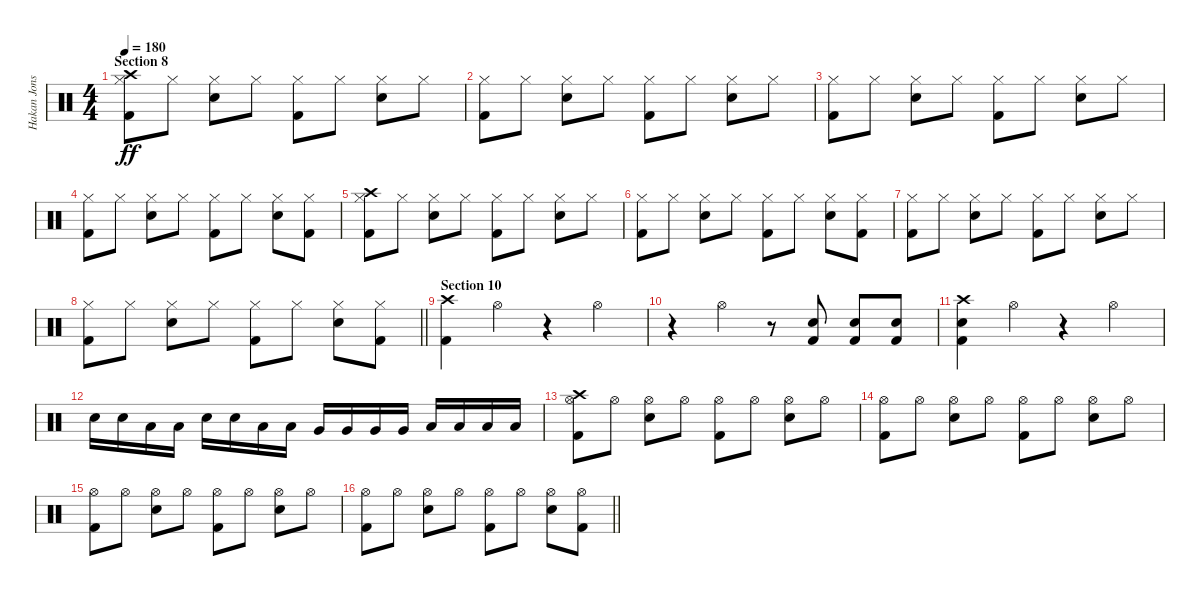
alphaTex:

\track ("Hakan Jonsson" "Hakan Jons") {instrument percussion}
\staff {score}
\articulation defaults
\ts (4 4)
\section ("" "Section 8")
\tempo 180
\clef neutral
\ks c
("Crash high (hit)" "Hi-Hat (closed)" "Kick (hit) 2").8{dy ff} "Hi-Hat (closed)".8 ("Hi-Hat (closed)" "Electric Snare (hit)").8 "Hi-Hat (closed)".8 ("Hi-Hat (closed)" "Kick (hit) 2").8 "Hi-Hat (closed)".8 ("Hi-Hat (closed)" "Electric Snare (hit)").8 "Hi-Hat (closed)".8 |
("Hi-Hat (closed)" "Kick (hit) 2").8 "Hi-Hat (closed)".8 ("Hi-Hat (closed)" "Electric Snare (hit)").8 "Hi-Hat (closed)".8 ("Hi-Hat (closed)" "Kick (hit) 2").8 "Hi-Hat (closed)".8 ("Hi-Hat (closed)" "Electric Snare (hit)").8 "Hi-Hat (closed)".8 |
("Hi-Hat (closed)" "Kick (hit) 2").8 "Hi-Hat (closed)".8 ("Hi-Hat (closed)" "Electric Snare (hit)").8 "Hi-Hat (closed)".8 ("Hi-Hat (closed)" "Kick (hit) 2").8 "Hi-Hat (closed)".8 ("Hi-Hat (closed)" "Electric Snare (hit)").8 "Hi-Hat (closed)".8 |
("Hi-Hat (closed)" "Kick (hit) 2").8 "Hi-Hat (closed)".8 ("Hi-Hat (closed)" "Electric Snare (hit)").8 "Hi-Hat (closed)".8 ("Hi-Hat (closed)" "Kick (hit) 2").8 "Hi-Hat (closed)".8 ("Hi-Hat (closed)" "Electric Snare (hit)").8 ("Hi-Hat (closed)" "Kick (hit) 2").8 |
("Crash high (hit)" "Hi-Hat (closed)" "Kick (hit) 2").8 "Hi-Hat (closed)".8 ("Hi-Hat (closed)" "Electric Snare (hit)").8 "Hi-Hat (closed)".8 ("Hi-Hat (closed)" "Kick (hit) 2").8 "Hi-Hat (closed)".8 ("Hi-Hat (closed)" "Electric Snare (hit)").8 "Hi-Hat (closed)".8 |
("Hi-Hat (closed)" "Kick (hit) 2").8 "Hi-Hat (closed)".8 ("Hi-Hat (closed)" "Electric Snare (hit)").8 "Hi-Hat (closed)".8 ("Hi-Hat (closed)" "Kick (hit) 2").8 "Hi-Hat (closed)".8 ("Hi-Hat (closed)" "Electric Snare (hit)").8 ("Hi-Hat (closed)" "Kick (hit) 2").8 |
("Hi-Hat (closed)" "Kick (hit) 2").8 "Hi-Hat (closed)".8 ("Hi-Hat (closed)" "Electric Snare (hit)").8 "Hi-Hat (closed)".8 ("Hi-Hat (closed)" "Kick (hit) 2").8 "Hi-Hat (closed)".8 ("Hi-Hat (closed)" "Electric Snare (hit)").8 "Hi-Hat (closed)".8 |
\barLineRight lightlight
("Hi-Hat (closed)" "Kick (hit) 2").8 "Hi-Hat (closed)".8 ("Hi-Hat (closed)" "Electric Snare (hit)").8 "Hi-Hat (closed)".8 ("Hi-Hat (closed)" "Kick (hit) 2").8 "Hi-Hat (closed)".8 ("Hi-Hat (closed)" "Electric Snare (hit)").8 ("Hi-Hat (closed)" "Kick (hit) 2").8 |
\section ("" "Section 10")
("Crash high (hit)" "Kick (hit) 2").4 "Hi-Hat (open)".4 r.4 "Hi-Hat (open)".4 |
r.4 "Hi-Hat (open)".4 r.8 ("Electric Snare (hit)" "Kick (hit) 2").8 ("Electric Snare (hit)" "Kick (hit) 2").8 ("Electric Snare (hit)" "Kick (hit) 2").8 |
("Crash high (hit)" "Electric Snare (hit)" "Kick (hit) 2").4 "Hi-Hat (open)".4 r.4 "Hi-Hat (open)".4 |
"Electric Snare (hit)".16 "Electric Snare (hit)".16 "Low Tom (hit)".16 "Low Tom (hit)".16 "Electric Snare (hit)".16 "Electric Snare (hit)".16 "Low Tom (hit)".16 "Low Tom (hit)".16 "Very Low Tom (hit)".16 "Very Low Tom (hit)".16 "Very Low Tom (hit)".16 "Very Low Tom (hit)".16 "Low Floor Tom (hit)".16 "Low Floor Tom (hit)".16 "Low Floor Tom (hit)".16 "Low Floor Tom (hit)".16 |
("Crash high (hit)" "Hi-Hat (open)" "Kick (hit) 2").8 "Hi-Hat (open)".8 ("Hi-Hat (open)" "Electric Snare (hit)").8 "Hi-Hat (open)".8 ("Hi-Hat (open)" "Kick (hit) 2").8 "Hi-Hat (open)".8 ("Hi-Hat (open)" "Electric Snare (hit)").8 "Hi-Hat (open)".8 |
("Hi-Hat (open)" "Kick (hit) 2").8 "Hi-Hat (open)".8 ("Hi-Hat (open)" "Electric Snare (hit)").8 "Hi-Hat (open)".8 ("Hi-Hat (open)" "Kick (hit) 2").8 "Hi-Hat (open)".8 ("Hi-Hat (open)" "Electric Snare (hit)").8 "Hi-Hat (open)".8 |
("Hi-Hat (open)" "Kick (hit) 2").8 "Hi-Hat (open)".8 ("Hi-Hat (open)" "Electric Snare (hit)").8 "Hi-Hat (open)".8 ("Hi-Hat (open)" "Kick (hit) 2").8 "Hi-Hat (open)".8 ("Hi-Hat (open)" "Electric Snare (hit)").8 "Hi-Hat (open)".8 |
\barLineRight lightlight
("Hi-Hat (open)" "Kick (hit) 2").8 "Hi-Hat (open)".8 ("Hi-Hat (open)" "Electric Snare (hit)").8 "Hi-Hat (open)".8 ("Hi-Hat (open)" "Kick (hit) 2").8 "Hi-Hat (open)".8 ("Hi-Hat (open)" "Electric Snare (hit)").8 ("Hi-Hat (open)" "Kick (hit) 2").8
